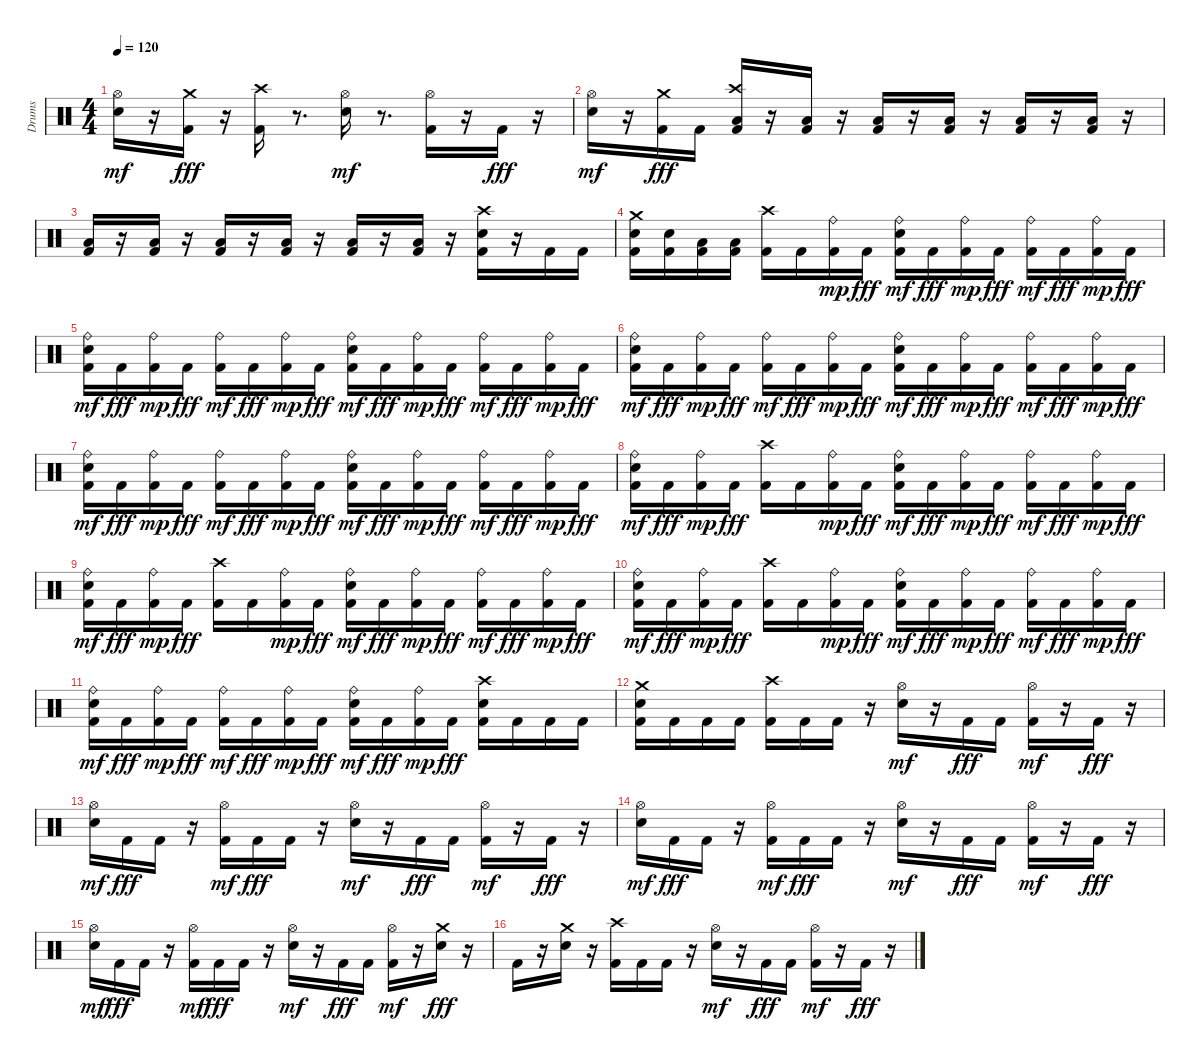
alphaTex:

\track ("Drums" "Drums") {instrument percussion}
\staff {score}
\articulation defaults
\ts (4 4)
\tempo 120
\clef neutral
\ks c
("Electric Snare (hit)" "Hi-Hat (open)").16{dy mf} r.16 ("Kick (hit) 2" "Crash medium (hit)").16{dy fff} r.16 ("Kick (hit) 2" "Crash high (hit)").16 r.8{d} ("Electric Snare (hit)" "Hi-Hat (open)").16{dy mf} r.8{d} ("Kick (hit) 2" "Hi-Hat (open)").16 r.16 "Kick (hit) 2".16{dy fff} r.16 |
("Electric Snare (hit)" "Hi-Hat (open)").16{dy mf} r.16 ("Kick (hit) 2" "Crash medium (hit)").16{dy fff} "Kick (hit) 2".16 ("Kick (hit) 2" "Low Floor Tom (hit)" "Crash high (hit)").16 r.16 ("Kick (hit) 2" "Low Floor Tom (hit)").16 r.16 ("Kick (hit) 2" "Low Floor Tom (hit)").16 r.16 ("Kick (hit) 2" "Low Floor Tom (hit)").16 r.16 ("Kick (hit) 2" "Low Floor Tom (hit)").16 r.16 ("Kick (hit) 2" "Low Floor Tom (hit)").16 r.16 |
("Kick (hit) 2" "Low Floor Tom (hit)").16 r.16 ("Kick (hit) 2" "Low Floor Tom (hit)").16 r.16 ("Kick (hit) 2" "Low Floor Tom (hit)").16 r.16 ("Kick (hit) 2" "Low Floor Tom (hit)").16 r.16 ("Kick (hit) 2" "Low Floor Tom (hit)").16 r.16 ("Kick (hit) 2" "Low Floor Tom (hit)").16 r.16 ("Electric Snare (hit)" "Kick (hit) 2" "Crash high (hit)").16 r.16 "Kick (hit) 2".16 "Kick (hit) 2".16 |
("Kick (hit) 2" "Electric Snare (hit)" "Crash medium (hit)").16 ("Electric Snare (hit)" "Kick (hit) 2").16 ("Kick (hit) 2" "Low Tom (hit)").16 ("Kick (hit) 2" "Low Floor Tom (hit)").16 ("Kick (hit) 2" "Crash high (hit)").16 "Kick (hit) 2".16 ("Kick (hit) 2" "Ride (bell)").16{dy mp} "Kick (hit) 2".16{dy fff} ("Kick (hit) 2" "Electric Snare (hit)" "Ride (bell)").16{dy mf} "Kick (hit) 2".16{dy fff} ("Kick (hit) 2" "Ride (bell)").16{dy mp} "Kick (hit) 2".16{dy fff} ("Kick (hit) 2" "Ride (bell)").16{dy mf} "Kick (hit) 2".16{dy fff} ("Kick (hit) 2" "Ride (bell)").16{dy mp} "Kick (hit) 2".16{dy fff} |
("Kick (hit) 2" "Electric Snare (hit)" "Ride (bell)").16{dy mf} "Kick (hit) 2".16{dy fff} ("Kick (hit) 2" "Ride (bell)").16{dy mp} "Kick (hit) 2".16{dy fff} ("Kick (hit) 2" "Ride (bell)").16{dy mf} "Kick (hit) 2".16{dy fff} ("Kick (hit) 2" "Ride (bell)").16{dy mp} "Kick (hit) 2".16{dy fff} ("Kick (hit) 2" "Electric Snare (hit)" "Ride (bell)").16{dy mf} "Kick (hit) 2".16{dy fff} ("Kick (hit) 2" "Ride (bell)").16{dy mp} "Kick (hit) 2".16{dy fff} ("Kick (hit) 2" "Ride (bell)").16{dy mf} "Kick (hit) 2".16{dy fff} ("Kick (hit) 2" "Ride (bell)").16{dy mp} "Kick (hit) 2".16{dy fff} |
("Kick (hit) 2" "Electric Snare (hit)" "Ride (bell)").16{dy mf} "Kick (hit) 2".16{dy fff} ("Kick (hit) 2" "Ride (bell)").16{dy mp} "Kick (hit) 2".16{dy fff} ("Kick (hit) 2" "Ride (bell)").16{dy mf} "Kick (hit) 2".16{dy fff} ("Kick (hit) 2" "Ride (bell)").16{dy mp} "Kick (hit) 2".16{dy fff} ("Kick (hit) 2" "Electric Snare (hit)" "Ride (bell)").16{dy mf} "Kick (hit) 2".16{dy fff} ("Kick (hit) 2" "Ride (bell)").16{dy mp} "Kick (hit) 2".16{dy fff} ("Kick (hit) 2" "Ride (bell)").16{dy mf} "Kick (hit) 2".16{dy fff} ("Kick (hit) 2" "Ride (bell)").16{dy mp} "Kick (hit) 2".16{dy fff} |
("Kick (hit) 2" "Electric Snare (hit)" "Ride (bell)").16{dy mf} "Kick (hit) 2".16{dy fff} ("Kick (hit) 2" "Ride (bell)").16{dy mp} "Kick (hit) 2".16{dy fff} ("Kick (hit) 2" "Ride (bell)").16{dy mf} "Kick (hit) 2".16{dy fff} ("Kick (hit) 2" "Ride (bell)").16{dy mp} "Kick (hit) 2".16{dy fff} ("Kick (hit) 2" "Electric Snare (hit)" "Ride (bell)").16{dy mf} "Kick (hit) 2".16{dy fff} ("Kick (hit) 2" "Ride (bell)").16{dy mp} "Kick (hit) 2".16{dy fff} ("Kick (hit) 2" "Ride (bell)").16{dy mf} "Kick (hit) 2".16{dy fff} ("Kick (hit) 2" "Ride (bell)").16{dy mp} "Kick (hit) 2".16{dy fff} |
("Kick (hit) 2" "Electric Snare (hit)" "Ride (bell)").16{dy mf} "Kick (hit) 2".16{dy fff} ("Kick (hit) 2" "Ride (bell)").16{dy mp} "Kick (hit) 2".16{dy fff} ("Kick (hit) 2" "Crash high (hit)").16 "Kick (hit) 2".16 ("Kick (hit) 2" "Ride (bell)").16{dy mp} "Kick (hit) 2".16{dy fff} ("Kick (hit) 2" "Electric Snare (hit)" "Ride (bell)").16{dy mf} "Kick (hit) 2".16{dy fff} ("Kick (hit) 2" "Ride (bell)").16{dy mp} "Kick (hit) 2".16{dy fff} ("Kick (hit) 2" "Ride (bell)").16{dy mf} "Kick (hit) 2".16{dy fff} ("Kick (hit) 2" "Ride (bell)").16{dy mp} "Kick (hit) 2".16{dy fff} |
("Kick (hit) 2" "Electric Snare (hit)" "Ride (bell)").16{dy mf} "Kick (hit) 2".16{dy fff} ("Kick (hit) 2" "Ride (bell)").16{dy mp} "Kick (hit) 2".16{dy fff} ("Kick (hit) 2" "Crash high (hit)").16 "Kick (hit) 2".16 ("Kick (hit) 2" "Ride (bell)").16{dy mp} "Kick (hit) 2".16{dy fff} ("Kick (hit) 2" "Electric Snare (hit)" "Ride (bell)").16{dy mf} "Kick (hit) 2".16{dy fff} ("Kick (hit) 2" "Ride (bell)").16{dy mp} "Kick (hit) 2".16{dy fff} ("Kick (hit) 2" "Ride (bell)").16{dy mf} "Kick (hit) 2".16{dy fff} ("Kick (hit) 2" "Ride (bell)").16{dy mp} "Kick (hit) 2".16{dy fff} |
("Kick (hit) 2" "Electric Snare (hit)" "Ride (bell)").16{dy mf} "Kick (hit) 2".16{dy fff} ("Kick (hit) 2" "Ride (bell)").16{dy mp} "Kick (hit) 2".16{dy fff} ("Kick (hit) 2" "Crash high (hit)").16 "Kick (hit) 2".16 ("Kick (hit) 2" "Ride (bell)").16{dy mp} "Kick (hit) 2".16{dy fff} ("Kick (hit) 2" "Electric Snare (hit)" "Ride (bell)").16{dy mf} "Kick (hit) 2".16{dy fff} ("Kick (hit) 2" "Ride (bell)").16{dy mp} "Kick (hit) 2".16{dy fff} ("Kick (hit) 2" "Ride (bell)").16{dy mf} "Kick (hit) 2".16{dy fff} ("Kick (hit) 2" "Ride (bell)").16{dy mp} "Kick (hit) 2".16{dy fff} |
("Kick (hit) 2" "Electric Snare (hit)" "Ride (bell)").16{dy mf} "Kick (hit) 2".16{dy fff} ("Kick (hit) 2" "Ride (bell)").16{dy mp} "Kick (hit) 2".16{dy fff} ("Kick (hit) 2" "Ride (bell)").16{dy mf} "Kick (hit) 2".16{dy fff} ("Kick (hit) 2" "Ride (bell)").16{dy mp} "Kick (hit) 2".16{dy fff} ("Kick (hit) 2" "Electric Snare (hit)" "Ride (bell)").16{dy mf} "Kick (hit) 2".16{dy fff} ("Kick (hit) 2" "Ride (bell)").16{dy mp} "Kick (hit) 2".16{dy fff} ("Kick (hit) 2" "Electric Snare (hit)" "Crash high (hit)").16 "Kick (hit) 2".16 "Kick (hit) 2".16 "Kick (hit) 2".16 |
("Kick (hit) 2" "Electric Snare (hit)" "Crash medium (hit)").16 "Kick (hit) 2".16 "Kick (hit) 2".16 "Kick (hit) 2".16 ("Kick (hit) 2" "Crash high (hit)").16 "Kick (hit) 2".16 "Kick (hit) 2".16 r.16 ("Electric Snare (hit)" "Hi-Hat (open)").16{dy mf} r.16 "Kick (hit) 2".16{dy fff} "Kick (hit) 2".16 ("Kick (hit) 2" "Hi-Hat (open)").16{dy mf} r.16 "Kick (hit) 2".16{dy fff} r.16 |
("Electric Snare (hit)" "Hi-Hat (open)").16{dy mf} "Kick (hit) 2".16{dy fff} "Kick (hit) 2".16 r.16 ("Kick (hit) 2" "Hi-Hat (open)").16{dy mf} "Kick (hit) 2".16{dy fff} "Kick (hit) 2".16 r.16 ("Electric Snare (hit)" "Hi-Hat (open)").16{dy mf} r.16 "Kick (hit) 2".16{dy fff} "Kick (hit) 2".16 ("Kick (hit) 2" "Hi-Hat (open)").16{dy mf} r.16 "Kick (hit) 2".16{dy fff} r.16 |
("Electric Snare (hit)" "Hi-Hat (open)").16{dy mf} "Kick (hit) 2".16{dy fff} "Kick (hit) 2".16 r.16 ("Kick (hit) 2" "Hi-Hat (open)").16{dy mf} "Kick (hit) 2".16{dy fff} "Kick (hit) 2".16 r.16 ("Electric Snare (hit)" "Hi-Hat (open)").16{dy mf} r.16 "Kick (hit) 2".16{dy fff} "Kick (hit) 2".16 ("Kick (hit) 2" "Hi-Hat (open)").16{dy mf} r.16 "Kick (hit) 2".16{dy fff} r.16 |
("Electric Snare (hit)" "Hi-Hat (open)").16{dy mf} "Kick (hit) 2".16{dy fff} "Kick (hit) 2".16 r.16 ("Kick (hit) 2" "Hi-Hat (open)").16{dy mf} "Kick (hit) 2".16{dy fff} "Kick (hit) 2".16 r.16 ("Electric Snare (hit)" "Hi-Hat (open)").16{dy mf} r.16 "Kick (hit) 2".16{dy fff} "Kick (hit) 2".16 ("Kick (hit) 2" "Hi-Hat (open)").16{dy mf} r.16 ("Electric Snare (hit)" "Crash medium (hit)").16{dy fff} r.16 |
"Kick (hit) 2".16 r.16 ("Electric Snare (hit)" "Crash medium (hit)").16 r.16 ("Kick (hit) 2" "Crash high (hit)").16 "Kick (hit) 2".16 "Kick (hit) 2".16 r.16 ("Electric Snare (hit)" "Hi-Hat (open)").16{dy mf} r.16 "Kick (hit) 2".16{dy fff} "Kick (hit) 2".16 ("Kick (hit) 2" "Hi-Hat (open)").16{dy mf} r.16 "Kick (hit) 2".16{dy fff} r.16
